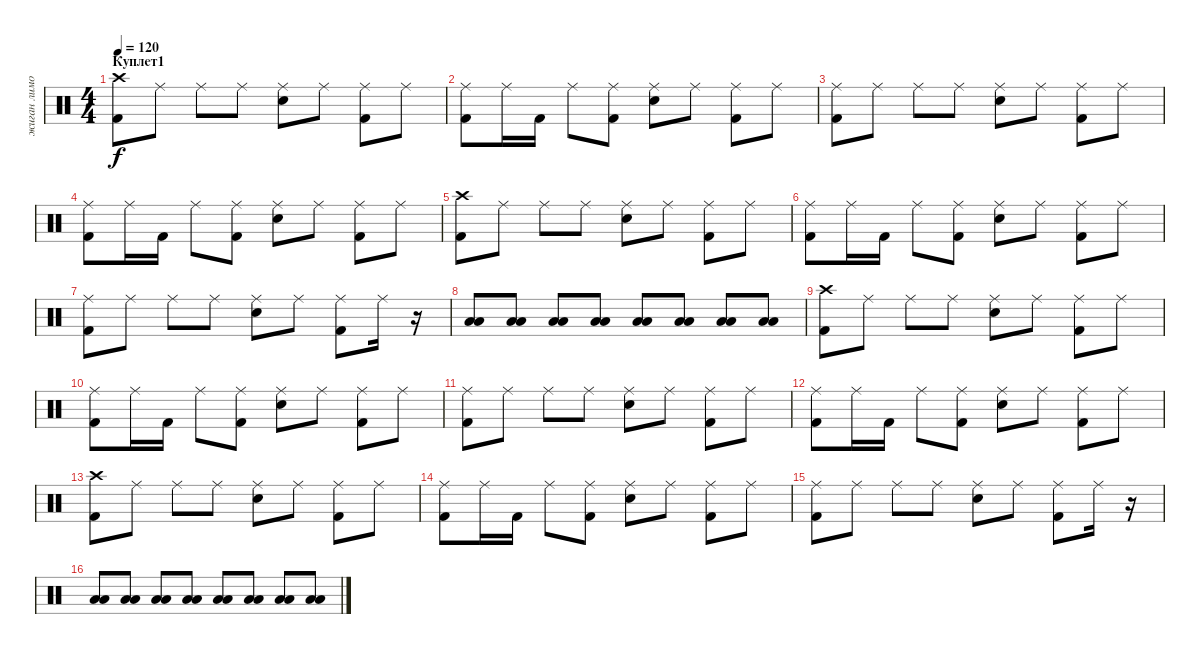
\track ("жиган лимон" "жиган лимо") {instrument percussion}
\staff {score}
\articulation defaults
\ts (4 4)
\section ("" "Куплет1")
\tempo 120
\clef neutral
\ks c
("Crash high (hit)" "Kick (hit) 2").8{dy f} "Ride (middle)".8 "Ride (middle)".8 "Ride (middle)".8 ("Ride (middle)" "Snare (hit) 2").8 "Ride (middle)".8 ("Ride (middle)" "Kick (hit) 2").8 "Ride (middle)".8 |
("Ride (middle)" "Kick (hit) 2").8 "Ride (middle)".16 "Kick (hit) 2".16 "Ride (middle)".8 ("Ride (middle)" "Kick (hit) 2").8 ("Ride (middle)" "Snare (hit) 2").8 "Ride (middle)".8 ("Ride (middle)" "Kick (hit) 2").8 "Ride (middle)".8 |
("Ride (middle)" "Kick (hit) 2").8 "Ride (middle)".8 "Ride (middle)".8 "Ride (middle)".8 ("Ride (middle)" "Snare (hit) 2").8 "Ride (middle)".8 ("Ride (middle)" "Kick (hit) 2").8 "Ride (middle)".8 |
("Ride (middle)" "Kick (hit) 2").8 "Ride (middle)".16 "Kick (hit) 2".16 "Ride (middle)".8 ("Ride (middle)" "Kick (hit) 2").8 ("Ride (middle)" "Snare (hit) 2").8 "Ride (middle)".8 ("Ride (middle)" "Kick (hit) 2").8 "Ride (middle)".8 |
("Crash high (hit)" "Kick (hit) 2").8 "Ride (middle)".8 "Ride (middle)".8 "Ride (middle)".8 ("Ride (middle)" "Snare (hit) 2").8 "Ride (middle)".8 ("Ride (middle)" "Kick (hit) 2").8 "Ride (middle)".8 |
("Ride (middle)" "Kick (hit) 2").8 "Ride (middle)".16 "Kick (hit) 2".16 "Ride (middle)".8 ("Ride (middle)" "Kick (hit) 2").8 ("Ride (middle)" "Snare (hit) 2").8 "Ride (middle)".8 ("Ride (middle)" "Kick (hit) 2").8 "Ride (middle)".8 |
("Ride (middle)" "Kick (hit) 2").8 "Ride (middle)".8 "Ride (middle)".8 "Ride (middle)".8 ("Ride (middle)" "Snare (hit) 2").8 "Ride (middle)".8 ("Ride (middle)" "Kick (hit) 2").8 "Ride (middle)".16 r.16{volume 4} |
("Low Tom (hit)" "Low Floor Tom (hit)").8{volume 13} ("Low Tom (hit)" "Low Floor Tom (hit)").8 ("Low Tom (hit)" "Low Floor Tom (hit)").8 ("Low Tom (hit)" "Low Floor Tom (hit)").8 ("Low Tom (hit)" "Low Floor Tom (hit)").8 ("Low Tom (hit)" "Low Floor Tom (hit)").8 ("Low Tom (hit)" "Low Floor Tom (hit)").8 ("Low Tom (hit)" "Low Floor Tom (hit)").8 |
("Crash high (hit)" "Kick (hit) 2").8 "Ride (middle)".8 "Ride (middle)".8 "Ride (middle)".8 ("Ride (middle)" "Snare (hit) 2").8 "Ride (middle)".8 ("Ride (middle)" "Kick (hit) 2").8 "Ride (middle)".8 |
("Ride (middle)" "Kick (hit) 2").8 "Ride (middle)".16 "Kick (hit) 2".16 "Ride (middle)".8 ("Ride (middle)" "Kick (hit) 2").8 ("Ride (middle)" "Snare (hit) 2").8 "Ride (middle)".8 ("Ride (middle)" "Kick (hit) 2").8 "Ride (middle)".8 |
("Ride (middle)" "Kick (hit) 2").8 "Ride (middle)".8 "Ride (middle)".8 "Ride (middle)".8 ("Ride (middle)" "Snare (hit) 2").8 "Ride (middle)".8 ("Ride (middle)" "Kick (hit) 2").8 "Ride (middle)".8 |
("Ride (middle)" "Kick (hit) 2").8 "Ride (middle)".16 "Kick (hit) 2".16 "Ride (middle)".8 ("Ride (middle)" "Kick (hit) 2").8 ("Ride (middle)" "Snare (hit) 2").8 "Ride (middle)".8 ("Ride (middle)" "Kick (hit) 2").8 "Ride (middle)".8 |
("Crash high (hit)" "Kick (hit) 2").8 "Ride (middle)".8 "Ride (middle)".8 "Ride (middle)".8 ("Ride (middle)" "Snare (hit) 2").8 "Ride (middle)".8 ("Ride (middle)" "Kick (hit) 2").8 "Ride (middle)".8 |
("Ride (middle)" "Kick (hit) 2").8 "Ride (middle)".16 "Kick (hit) 2".16 "Ride (middle)".8 ("Ride (middle)" "Kick (hit) 2").8 ("Ride (middle)" "Snare (hit) 2").8 "Ride (middle)".8 ("Ride (middle)" "Kick (hit) 2").8 "Ride (middle)".8 |
("Ride (middle)" "Kick (hit) 2").8 "Ride (middle)".8 "Ride (middle)".8 "Ride (middle)".8 ("Ride (middle)" "Snare (hit) 2").8 "Ride (middle)".8 ("Ride (middle)" "Kick (hit) 2").8 "Ride (middle)".16 r.16{volume 4} |
("Low Tom (hit)" "Low Floor Tom (hit)").8{volume 13} ("Low Tom (hit)" "Low Floor Tom (hit)").8 ("Low Tom (hit)" "Low Floor Tom (hit)").8 ("Low Tom (hit)" "Low Floor Tom (hit)").8 ("Low Tom (hit)" "Low Floor Tom (hit)").8 ("Low Tom (hit)" "Low Floor Tom (hit)").8 ("Low Tom (hit)" "Low Floor Tom (hit)").8 ("Low Tom (hit)" "Low Floor Tom (hit)").8
